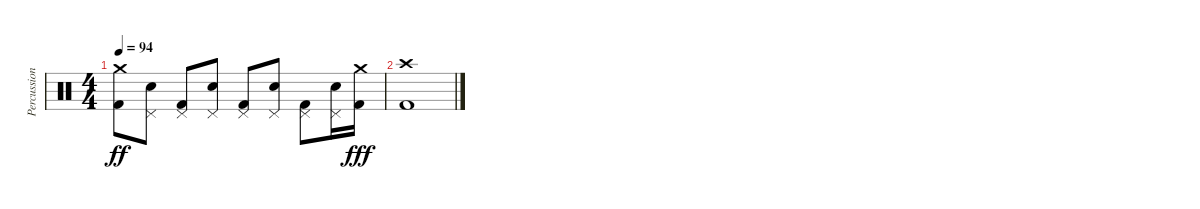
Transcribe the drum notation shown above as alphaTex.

\track ("Percussion" "Percussion") {instrument percussion}
\staff {score}
\articulation defaults
\ts (4 4)
\tempo 94
\clef neutral
\ks c
("Kick (hit) 2" "Crash medium (hit)").8{dy ff} ("Snare (hit) 2" "Pedal Hi-Hat (hit)").8 ("Kick (hit) 2" "Pedal Hi-Hat (hit)").8 ("Snare (hit) 2" "Pedal Hi-Hat (hit)").8 ("Kick (hit) 2" "Pedal Hi-Hat (hit)").8 ("Snare (hit) 2" "Pedal Hi-Hat (hit)").8 ("Kick (hit) 2" "Pedal Hi-Hat (hit)").8 ("Snare (hit) 2" "Pedal Hi-Hat (hit)").16 ("Kick (hit) 2" "Crash medium (hit)").16{dy fff} |
("Kick (hit) 2" "Crash high (hit)").1
